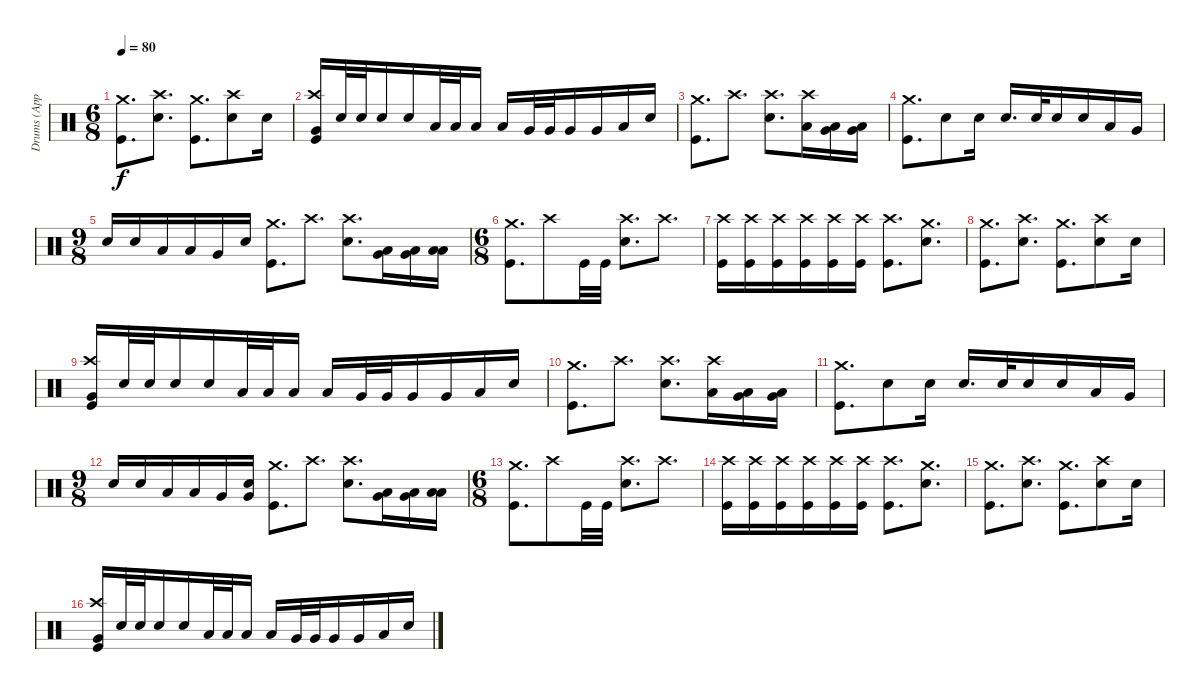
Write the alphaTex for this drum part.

\track ("Drums (Appelhans/Durst)" "Drums (App") {instrument percussion}
\staff {score}
\articulation defaults
\ts (6 8)
\tempo 80
\clef neutral
\ks c
("Kick (hit)" "Crash medium (hit)").8{d dy f} ("Snare (hit) 2" "Crash high (hit)").8{d} ("Kick (hit)" "Crash medium (hit)").8{d} ("Snare (hit) 2" "Crash high (hit)").8 "Snare (hit) 2".16 |
("Kick (hit)" "Very Low Tom (hit)" "Crash high (hit)").16 "Snare (hit) 2".32 "Snare (hit) 2".32 "Snare (hit) 2".16 "Snare (hit) 2".16 "Low Tom (hit)".32 "Low Tom (hit)".32 "Low Tom (hit)".16 "Low Tom (hit)".16 "Very Low Tom (hit)".32 "Very Low Tom (hit)".32 "Very Low Tom (hit)".16 "Very Low Tom (hit)".16 "Low Floor Tom (hit)".16 "Snare (hit) 2".16 |
("Kick (hit)" "Crash medium (hit)").8{d} "Crash high (hit)".8{d} ("Crash high (hit)" "Snare (hit) 2").8{d} ("Crash high (hit)" "Low Tom (hit)").16 ("Low Tom (hit)" "Very Low Tom (hit)").16 ("Low Tom (hit)" "Very Low Tom (hit)").16 |
("Kick (hit)" "Crash medium (hit)").8{d} "Snare (hit) 2".8 "Snare (hit) 2".16 "Snare (hit) 2".16{d} "Snare (hit) 2".32 "Snare (hit) 2".16 "Snare (hit) 2".16 "Low Tom (hit)".16 "Very Low Tom (hit)".16 |
\ts (9 8)
"Snare (hit) 2".16 "Snare (hit) 2".16 "Low Tom (hit)".16 "Low Tom (hit)".16 "Very Low Tom (hit)".16 "Snare (hit) 2".16 ("Crash medium (hit)" "Kick (hit)").8{d} "Crash high (hit)".8{d} ("Crash high (hit)" "Snare (hit) 2").8{d} ("Low Tom (hit)" "Very Low Tom (hit)").16 ("Low Tom (hit)" "Very Low Tom (hit)").16 ("Low Tom (hit)" "Low Floor Tom (hit)").16 |
\ts (6 8)
("Kick (hit)" "Crash medium (hit)").8{d} "Crash high (hit)".8 "Kick (hit)".32 "Kick (hit)".32 ("Snare (hit) 2" "Crash high (hit)").8{d} "Crash high (hit)".8{d} |
("Kick (hit)" "Crash high (hit)").16 ("Kick (hit)" "Crash high (hit)").16 ("Kick (hit)" "Crash high (hit)").16 ("Kick (hit)" "Crash high (hit)").16 ("Kick (hit)" "Crash high (hit)").16 ("Kick (hit)" "Crash high (hit)").16 ("Kick (hit)" "Crash high (hit)").8{d} ("Snare (hit) 2" "Crash medium (hit)").8{d} |
("Kick (hit)" "Crash medium (hit)").8{d} ("Snare (hit) 2" "Crash high (hit)").8{d} ("Kick (hit)" "Crash medium (hit)").8{d} ("Snare (hit) 2" "Crash high (hit)").8 "Snare (hit) 2".16 |
("Kick (hit)" "Very Low Tom (hit)" "Crash high (hit)").16 "Snare (hit) 2".32 "Snare (hit) 2".32 "Snare (hit) 2".16 "Snare (hit) 2".16 "Low Tom (hit)".32 "Low Tom (hit)".32 "Low Tom (hit)".16 "Low Tom (hit)".16 "Very Low Tom (hit)".32 "Very Low Tom (hit)".32 "Very Low Tom (hit)".16 "Very Low Tom (hit)".16 "Low Floor Tom (hit)".16 "Snare (hit) 2".16 |
("Kick (hit)" "Crash medium (hit)").8{d} "Crash high (hit)".8{d} ("Crash high (hit)" "Snare (hit) 2").8{d} ("Crash high (hit)" "Low Tom (hit)").16 ("Low Tom (hit)" "Very Low Tom (hit)").16 ("Low Tom (hit)" "Very Low Tom (hit)").16 |
("Kick (hit)" "Crash medium (hit)").8{d} "Snare (hit) 2".8 "Snare (hit) 2".16 "Snare (hit) 2".16{d} "Snare (hit) 2".32 "Snare (hit) 2".16 "Snare (hit) 2".16 "Low Tom (hit)".16 "Very Low Tom (hit)".16 |
\ts (9 8)
"Snare (hit) 2".16 "Snare (hit) 2".16 "Low Tom (hit)".16 "Low Tom (hit)".16 "Very Low Tom (hit)".16 ("Very Low Tom (hit)" "Snare (hit) 2").16 ("Crash medium (hit)" "Kick (hit)").8{d} "Crash high (hit)".8{d} ("Crash high (hit)" "Snare (hit) 2").8{d} ("Low Tom (hit)" "Very Low Tom (hit)").16 ("Low Tom (hit)" "Very Low Tom (hit)").16 ("Low Tom (hit)" "Low Floor Tom (hit)").16 |
\ts (6 8)
("Kick (hit)" "Crash medium (hit)").8{d} "Crash high (hit)".8 "Kick (hit)".32 "Kick (hit)".32 ("Snare (hit) 2" "Crash high (hit)").8{d} "Crash high (hit)".8{d} |
("Kick (hit)" "Crash high (hit)").16 ("Kick (hit)" "Crash high (hit)").16 ("Kick (hit)" "Crash high (hit)").16 ("Kick (hit)" "Crash high (hit)").16 ("Kick (hit)" "Crash high (hit)").16 ("Kick (hit)" "Crash high (hit)").16 ("Kick (hit)" "Crash high (hit)").8{d} ("Snare (hit) 2" "Crash medium (hit)").8{d} |
("Kick (hit)" "Crash medium (hit)").8{d} ("Snare (hit) 2" "Crash high (hit)").8{d} ("Kick (hit)" "Crash medium (hit)").8{d} ("Snare (hit) 2" "Crash high (hit)").8 "Snare (hit) 2".16 |
("Kick (hit)" "Very Low Tom (hit)" "Crash high (hit)").16 "Snare (hit) 2".32 "Snare (hit) 2".32 "Snare (hit) 2".16 "Snare (hit) 2".16 "Low Tom (hit)".32 "Low Tom (hit)".32 "Low Tom (hit)".16 "Low Tom (hit)".16 "Very Low Tom (hit)".32 "Very Low Tom (hit)".32 "Very Low Tom (hit)".16 "Very Low Tom (hit)".16 "Low Floor Tom (hit)".16 "Snare (hit) 2".16
